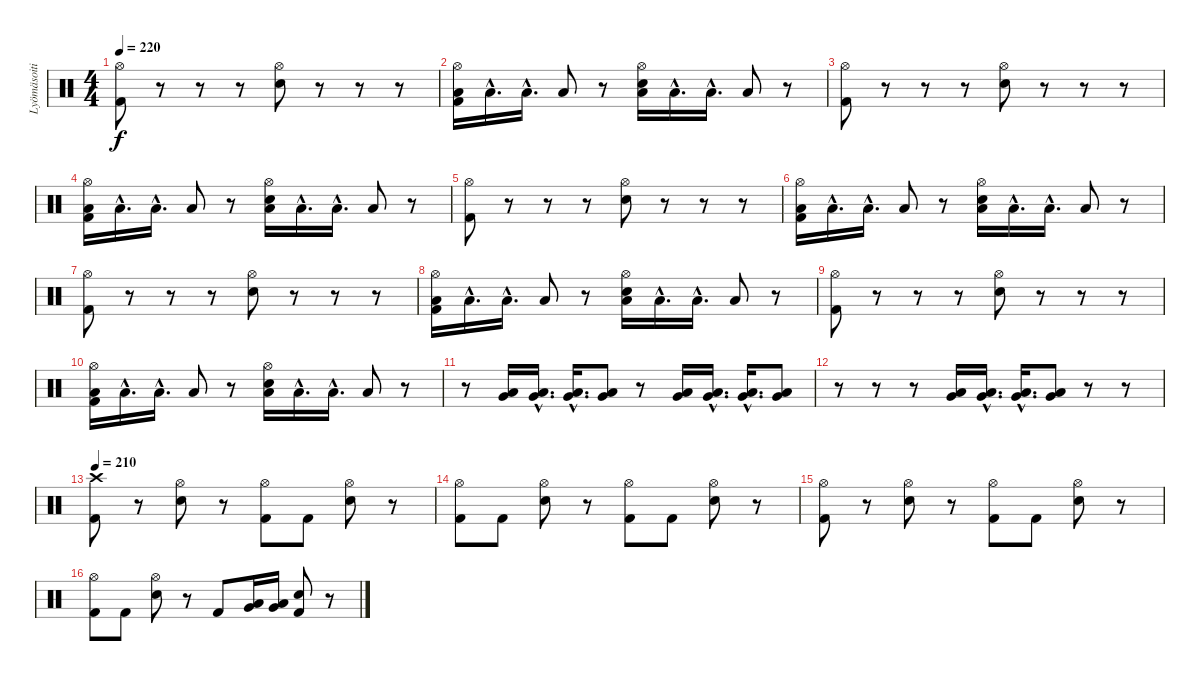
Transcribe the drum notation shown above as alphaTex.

\track ("Lyömäsoitin" "Lyömäsoiti") {instrument percussion}
\staff {score}
\articulation defaults
\ts (4 4)
\tempo 220
\clef neutral
\ks c
("Hi-Hat (open)" "Kick (hit) 2").8{dy f} r.8 r.8 r.8 ("Hi-Hat (open)" "Electric Snare (hit)").8 r.8 r.8 r.8 |
("Low Floor Tom (hit)" "Hi-Hat (open)" "Kick (hit) 2").16 "Low Floor Tom (hit)"{hac}.16{d} "Low Floor Tom (hit)"{hac}.16{d} "Low Floor Tom (hit)".8 r.8 ("Low Floor Tom (hit)" "Hi-Hat (open)" "Electric Snare (hit)").16 "Low Floor Tom (hit)"{hac}.16{d} "Low Floor Tom (hit)"{hac}.16{d} "Low Floor Tom (hit)".8 r.8 |
("Hi-Hat (open)" "Kick (hit) 2").8 r.8 r.8 r.8 ("Hi-Hat (open)" "Electric Snare (hit)").8 r.8 r.8 r.8 |
("Low Floor Tom (hit)" "Hi-Hat (open)" "Kick (hit) 2").16 "Low Floor Tom (hit)"{hac}.16{d} "Low Floor Tom (hit)"{hac}.16{d} "Low Floor Tom (hit)".8 r.8 ("Low Floor Tom (hit)" "Hi-Hat (open)" "Electric Snare (hit)").16 "Low Floor Tom (hit)"{hac}.16{d} "Low Floor Tom (hit)"{hac}.16{d} "Low Floor Tom (hit)".8 r.8 |
("Hi-Hat (open)" "Kick (hit) 2").8 r.8 r.8 r.8 ("Hi-Hat (open)" "Electric Snare (hit)").8 r.8 r.8 r.8 |
("Low Floor Tom (hit)" "Hi-Hat (open)" "Kick (hit) 2").16 "Low Floor Tom (hit)"{hac}.16{d} "Low Floor Tom (hit)"{hac}.16{d} "Low Floor Tom (hit)".8 r.8 ("Low Floor Tom (hit)" "Hi-Hat (open)" "Electric Snare (hit)").16 "Low Floor Tom (hit)"{hac}.16{d} "Low Floor Tom (hit)"{hac}.16{d} "Low Floor Tom (hit)".8 r.8 |
("Hi-Hat (open)" "Kick (hit) 2").8 r.8 r.8 r.8 ("Hi-Hat (open)" "Electric Snare (hit)").8 r.8 r.8 r.8 |
("Low Floor Tom (hit)" "Hi-Hat (open)" "Kick (hit) 2").16 "Low Floor Tom (hit)"{hac}.16{d} "Low Floor Tom (hit)"{hac}.16{d} "Low Floor Tom (hit)".8 r.8 ("Low Floor Tom (hit)" "Hi-Hat (open)" "Electric Snare (hit)").16 "Low Floor Tom (hit)"{hac}.16{d} "Low Floor Tom (hit)"{hac}.16{d} "Low Floor Tom (hit)".8 r.8 |
("Hi-Hat (open)" "Kick (hit) 2").8 r.8 r.8 r.8 ("Hi-Hat (open)" "Electric Snare (hit)").8 r.8 r.8 r.8 |
("Low Floor Tom (hit)" "Hi-Hat (open)" "Kick (hit) 2").16 "Low Floor Tom (hit)"{hac}.16{d} "Low Floor Tom (hit)"{hac}.16{d} "Low Floor Tom (hit)".8 r.8 ("Low Floor Tom (hit)" "Hi-Hat (open)" "Electric Snare (hit)").16 "Low Floor Tom (hit)"{hac}.16{d} "Low Floor Tom (hit)"{hac}.16{d} "Low Floor Tom (hit)".8 r.8 |
r.8 ("Low Floor Tom (hit)" "Very Low Tom (hit)").16 ("Low Floor Tom (hit)"{hac} "Very Low Tom (hit)"{hac}).16{d} ("Low Floor Tom (hit)"{hac} "Very Low Tom (hit)"{hac}).16{d} ("Low Floor Tom (hit)" "Very Low Tom (hit)").8 r.8 ("Low Floor Tom (hit)" "Very Low Tom (hit)").16 ("Low Floor Tom (hit)"{hac} "Very Low Tom (hit)"{hac}).16{d} ("Low Floor Tom (hit)"{hac} "Very Low Tom (hit)"{hac}).16{d} ("Low Floor Tom (hit)" "Very Low Tom (hit)").8 |
r.8 r.8 r.8 ("Low Floor Tom (hit)" "Very Low Tom (hit)").16 ("Low Floor Tom (hit)"{hac} "Very Low Tom (hit)"{hac}).16{d} ("Low Floor Tom (hit)"{hac} "Very Low Tom (hit)"{hac}).16{d} ("Low Floor Tom (hit)" "Very Low Tom (hit)").8 r.8 r.8 |
\tempo 210
("Crash high (hit)" "Kick (hit) 2").8 r.8 ("Hi-Hat (open)" "Electric Snare (hit)").8 r.8 ("Hi-Hat (open)" "Kick (hit) 2").8 "Kick (hit) 2".8 ("Hi-Hat (open)" "Electric Snare (hit)").8 r.8 |
("Hi-Hat (open)" "Kick (hit) 2").8 "Kick (hit) 2".8 ("Hi-Hat (open)" "Electric Snare (hit)").8 r.8 ("Hi-Hat (open)" "Kick (hit) 2").8 "Kick (hit) 2".8 ("Hi-Hat (open)" "Electric Snare (hit)").8 r.8 |
("Hi-Hat (open)" "Kick (hit) 2").8 r.8 ("Hi-Hat (open)" "Electric Snare (hit)").8 r.8 ("Hi-Hat (open)" "Kick (hit) 2").8 "Kick (hit) 2".8 ("Hi-Hat (open)" "Electric Snare (hit)").8 r.8 |
("Hi-Hat (open)" "Kick (hit) 2").8 "Kick (hit) 2".8 ("Hi-Hat (open)" "Electric Snare (hit)").8 r.8 "Kick (hit) 2".8 ("Low Floor Tom (hit)" "Very Low Tom (hit)").16 ("Low Floor Tom (hit)" "Very Low Tom (hit)").16 ("Electric Snare (hit)" "Kick (hit) 2").8 r.8
